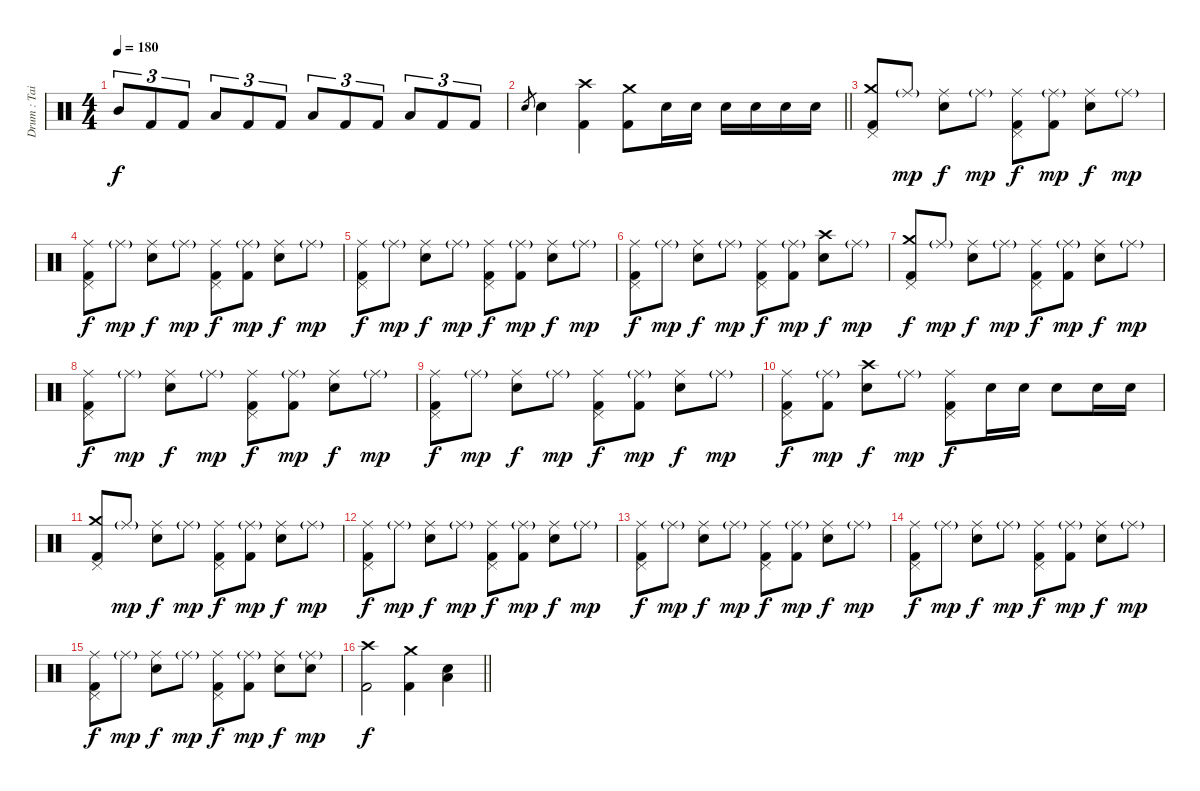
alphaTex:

\track ("Drum : Tainaka Ritsu - Chan" "Drum : Tai") {instrument percussion}
\staff {score}
\articulation defaults
\ts (4 4)
\tempo 180
\clef neutral
\ks c "Mid Tom (hit)".8{tu (3 2) dy f} "Kick (hit) 2".8{tu (3 2)} "Kick (hit) 2".8{tu (3 2)} "Low Tom (hit)".8{tu (3 2)} "Kick (hit) 2".8{tu (3 2)} "Kick (hit) 2".8{tu (3 2)} "Low Floor Tom (hit)".8{tu (3 2)} "Kick (hit) 2".8{tu (3 2)} "Kick (hit) 2".8{tu (3 2)} "Low Tom (hit)".8{tu (3 2)} "Kick (hit) 2".8{tu (3 2)} "Kick (hit) 2".8{tu (3 2)}
|
\barLineRight lightlight "Electric Snare (hit)".8{gr} "Electric Snare (hit)".4
("Crash high (hit)" "Kick (hit) 2").4 ("Crash medium (hit)" "Kick (hit) 2").8 "Electric Snare (hit)".16 "Electric Snare (hit)".16 "Electric Snare (hit)".16 "Electric Snare (hit)".16 "Electric Snare (hit)".16 "Electric Snare (hit)".16 |
("Crash medium (hit)" "Pedal Hi-Hat (hit)" "Kick (hit) 2").8 "Ride (middle)"{g}.8{dy mp} ("Ride (middle)" "Electric Snare (hit)").8{dy f} "Ride (middle)"{g}.8{dy mp} ("Ride (middle)" "Pedal Hi-Hat (hit)" "Kick (hit) 2").8{dy f} ("Ride (middle)"{g} "Kick (hit) 2").8{dy mp} ("Ride (middle)" "Electric Snare (hit)").8{dy f} "Ride (middle)"{g}.8{dy mp} |
("Ride (middle)" "Pedal Hi-Hat (hit)" "Kick (hit) 2").8{dy f} "Ride (middle)"{g}.8{dy mp} ("Ride (middle)" "Electric Snare (hit)").8{dy f} "Ride (middle)"{g}.8{dy mp} ("Ride (middle)" "Pedal Hi-Hat (hit)" "Kick (hit) 2").8{dy f} ("Ride (middle)"{g} "Kick (hit) 2").8{dy mp} ("Ride (middle)" "Electric Snare (hit)").8{dy f} "Ride (middle)"{g}.8{dy mp} |
("Ride (middle)" "Pedal Hi-Hat (hit)" "Kick (hit) 2").8{dy f} "Ride (middle)"{g}.8{dy mp} ("Ride (middle)" "Electric Snare (hit)").8{dy f} "Ride (middle)"{g}.8{dy mp} ("Ride (middle)" "Pedal Hi-Hat (hit)" "Kick (hit) 2").8{dy f} ("Ride (middle)"{g} "Kick (hit) 2").8{dy mp} ("Ride (middle)" "Electric Snare (hit)").8{dy f} "Ride (middle)"{g}.8{dy mp} |
("Ride (middle)" "Pedal Hi-Hat (hit)" "Kick (hit) 2").8{dy f} "Ride (middle)"{g}.8{dy mp} ("Ride (middle)" "Electric Snare (hit)").8{dy f} "Ride (middle)"{g}.8{dy mp} ("Ride (middle)" "Pedal Hi-Hat (hit)" "Kick (hit) 2").8{dy f} ("Ride (middle)"{g} "Kick (hit) 2").8{dy mp} ("Crash high (hit)" "Electric Snare (hit)").8{dy f} "Ride (middle)"{g}.8{dy mp} |
("Crash medium (hit)" "Pedal Hi-Hat (hit)" "Kick (hit) 2").8{dy f} "Ride (middle)"{g}.8{dy mp} ("Ride (middle)" "Electric Snare (hit)").8{dy f} "Ride (middle)"{g}.8{dy mp} ("Ride (middle)" "Pedal Hi-Hat (hit)" "Kick (hit) 2").8{dy f} ("Ride (middle)"{g} "Kick (hit) 2").8{dy mp} ("Ride (middle)" "Electric Snare (hit)").8{dy f} "Ride (middle)"{g}.8{dy mp} |
("Ride (middle)" "Pedal Hi-Hat (hit)" "Kick (hit) 2").8{dy f} "Ride (middle)"{g}.8{dy mp} ("Ride (middle)" "Electric Snare (hit)").8{dy f} "Ride (middle)"{g}.8{dy mp} ("Ride (middle)" "Pedal Hi-Hat (hit)" "Kick (hit) 2").8{dy f} ("Ride (middle)"{g} "Kick (hit) 2").8{dy mp} ("Ride (middle)" "Electric Snare (hit)").8{dy f} "Ride (middle)"{g}.8{dy mp} |
("Ride (middle)" "Pedal Hi-Hat (hit)" "Kick (hit) 2").8{dy f} "Ride (middle)"{g}.8{dy mp} ("Ride (middle)" "Electric Snare (hit)").8{dy f} "Ride (middle)"{g}.8{dy mp} ("Ride (middle)" "Pedal Hi-Hat (hit)" "Kick (hit) 2").8{dy f} ("Ride (middle)"{g} "Kick (hit) 2").8{dy mp} ("Ride (middle)" "Electric Snare (hit)").8{dy f} "Ride (middle)"{g}.8{dy mp} |
("Ride (middle)" "Pedal Hi-Hat (hit)" "Kick (hit) 2").8{dy f} ("Ride (middle)"{g} "Kick (hit) 2").8{dy mp} ("Crash high (hit)" "Electric Snare (hit)").8{dy f} "Ride (middle)"{g}.8{dy mp} ("Ride (middle)" "Pedal Hi-Hat (hit)" "Kick (hit) 2").8{dy f} "Electric Snare (hit)".16 "Electric Snare (hit)".16 "Electric Snare (hit)".8 "Electric Snare (hit)".16 "Electric Snare (hit)".16 |
("Crash medium (hit)" "Pedal Hi-Hat (hit)" "Kick (hit) 2").8 "Ride (middle)"{g}.8{dy mp} ("Ride (middle)" "Electric Snare (hit)").8{dy f} "Ride (middle)"{g}.8{dy mp} ("Ride (middle)" "Pedal Hi-Hat (hit)" "Kick (hit) 2").8{dy f} ("Ride (middle)"{g} "Kick (hit) 2").8{dy mp} ("Ride (middle)" "Electric Snare (hit)").8{dy f} "Ride (middle)"{g}.8{dy mp} |
("Ride (middle)" "Pedal Hi-Hat (hit)" "Kick (hit) 2").8{dy f} "Ride (middle)"{g}.8{dy mp} ("Ride (middle)" "Electric Snare (hit)").8{dy f} "Ride (middle)"{g}.8{dy mp} ("Ride (middle)" "Pedal Hi-Hat (hit)" "Kick (hit) 2").8{dy f} ("Ride (middle)"{g} "Kick (hit) 2").8{dy mp} ("Ride (middle)" "Electric Snare (hit)").8{dy f} "Ride (middle)"{g}.8{dy mp} |
("Ride (middle)" "Pedal Hi-Hat (hit)" "Kick (hit) 2").8{dy f} "Ride (middle)"{g}.8{dy mp} ("Ride (middle)" "Electric Snare (hit)").8{dy f} "Ride (middle)"{g}.8{dy mp} ("Ride (middle)" "Pedal Hi-Hat (hit)" "Kick (hit) 2").8{dy f} ("Ride (middle)"{g} "Kick (hit) 2").8{dy mp} ("Ride (middle)" "Electric Snare (hit)").8{dy f} "Ride (middle)"{g}.8{dy mp} |
("Ride (middle)" "Pedal Hi-Hat (hit)" "Kick (hit) 2").8{dy f} "Ride (middle)"{g}.8{dy mp} ("Ride (middle)" "Electric Snare (hit)").8{dy f} "Ride (middle)"{g}.8{dy mp} ("Ride (middle)" "Pedal Hi-Hat (hit)" "Kick (hit) 2").8{dy f} ("Ride (middle)"{g} "Kick (hit) 2").8{dy mp} ("Ride (middle)" "Electric Snare (hit)").8{dy f} "Ride (middle)"{g}.8{dy mp} |
("Ride (middle)" "Pedal Hi-Hat (hit)" "Kick (hit) 2").8{dy f} "Ride (middle)"{g}.8{dy mp} ("Ride (middle)" "Electric Snare (hit)").8{dy f} "Ride (middle)"{g}.8{dy mp} ("Ride (middle)" "Pedal Hi-Hat (hit)" "Kick (hit) 2").8{dy f} ("Ride (middle)"{g} "Kick (hit) 2").8{dy mp} ("Ride (middle)" "Electric Snare (hit)").8{dy f} ("Ride (middle)"{g} "Electric Snare (hit)").8{dy mp} |
\barLineRight lightlight
("Crash high (hit)" "Kick (hit) 2").2{dy f} ("Crash medium (hit)" "Kick (hit) 2").4 ("Electric Snare (hit)" "Low Floor Tom (hit)").4
